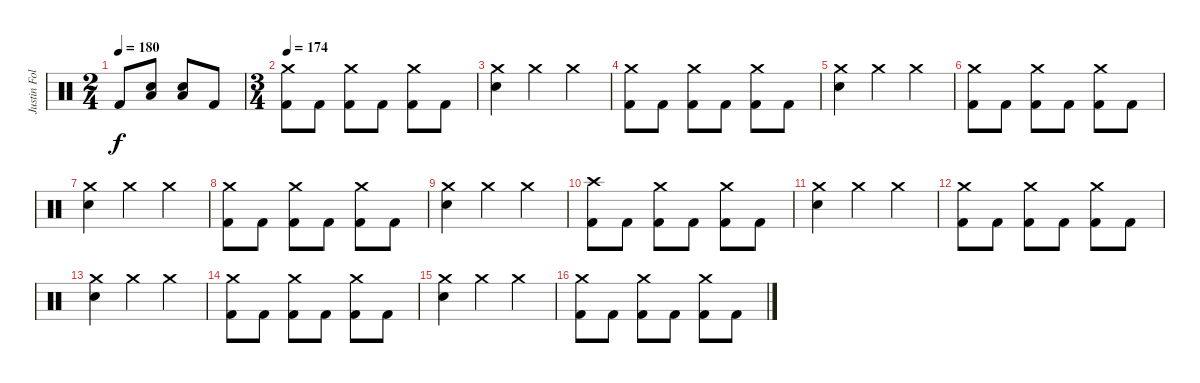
\track ("Justin Foley" "Justin Fol") {instrument percussion}
\staff {score}
\articulation defaults
\ts (2 4)
\tempo 180
\clef neutral
\ks c "Kick (hit) 2".8{dy f}
("Electric Snare (hit)" "Low Floor Tom (hit)").8 ("Electric Snare (hit)" "Low Floor Tom (hit)").8 "Kick (hit) 2".8 |
\ts (3 4)
\tempo 174
("Crash medium (hit)" "Kick (hit) 2").8 "Kick (hit) 2".8 ("Crash medium (hit)" "Kick (hit) 2").8 "Kick (hit) 2".8 ("Crash medium (hit)" "Kick (hit) 2").8 "Kick (hit) 2".8 |
("Crash medium (hit)" "Electric Snare (hit)").4 "Crash medium (hit)".4 "Crash medium (hit)".4 |
("Crash medium (hit)" "Kick (hit) 2").8 "Kick (hit) 2".8 ("Crash medium (hit)" "Kick (hit) 2").8 "Kick (hit) 2".8 ("Crash medium (hit)" "Kick (hit) 2").8 "Kick (hit) 2".8 |
("Crash medium (hit)" "Electric Snare (hit)").4 "Crash medium (hit)".4 "Crash medium (hit)".4 |
("Crash medium (hit)" "Kick (hit) 2").8 "Kick (hit) 2".8 ("Crash medium (hit)" "Kick (hit) 2").8 "Kick (hit) 2".8 ("Crash medium (hit)" "Kick (hit) 2").8 "Kick (hit) 2".8 |
("Crash medium (hit)" "Electric Snare (hit)").4 "Crash medium (hit)".4 "Crash medium (hit)".4 |
("Crash medium (hit)" "Kick (hit) 2").8 "Kick (hit) 2".8 ("Crash medium (hit)" "Kick (hit) 2").8 "Kick (hit) 2".8 ("Crash medium (hit)" "Kick (hit) 2").8 "Kick (hit) 2".8 |
("Crash medium (hit)" "Electric Snare (hit)").4 "Crash medium (hit)".4 "Crash medium (hit)".4 |
("Crash high (hit)" "Kick (hit) 2").8 "Kick (hit) 2".8 ("Crash medium (hit)" "Kick (hit) 2").8 "Kick (hit) 2".8 ("Crash medium (hit)" "Kick (hit) 2").8 "Kick (hit) 2".8 |
("Crash medium (hit)" "Electric Snare (hit)").4 "Crash medium (hit)".4 "Crash medium (hit)".4 |
("Crash medium (hit)" "Kick (hit) 2").8 "Kick (hit) 2".8 ("Crash medium (hit)" "Kick (hit) 2").8 "Kick (hit) 2".8 ("Crash medium (hit)" "Kick (hit) 2").8 "Kick (hit) 2".8 |
("Crash medium (hit)" "Electric Snare (hit)").4 "Crash medium (hit)".4 "Crash medium (hit)".4 |
("Crash medium (hit)" "Kick (hit) 2").8 "Kick (hit) 2".8 ("Crash medium (hit)" "Kick (hit) 2").8 "Kick (hit) 2".8 ("Crash medium (hit)" "Kick (hit) 2").8 "Kick (hit) 2".8 |
("Crash medium (hit)" "Electric Snare (hit)").4 "Crash medium (hit)".4 "Crash medium (hit)".4 |
("Crash medium (hit)" "Kick (hit) 2").8 "Kick (hit) 2".8 ("Crash medium (hit)" "Kick (hit) 2").8 "Kick (hit) 2".8 ("Crash medium (hit)" "Kick (hit) 2").8 "Kick (hit) 2".8
